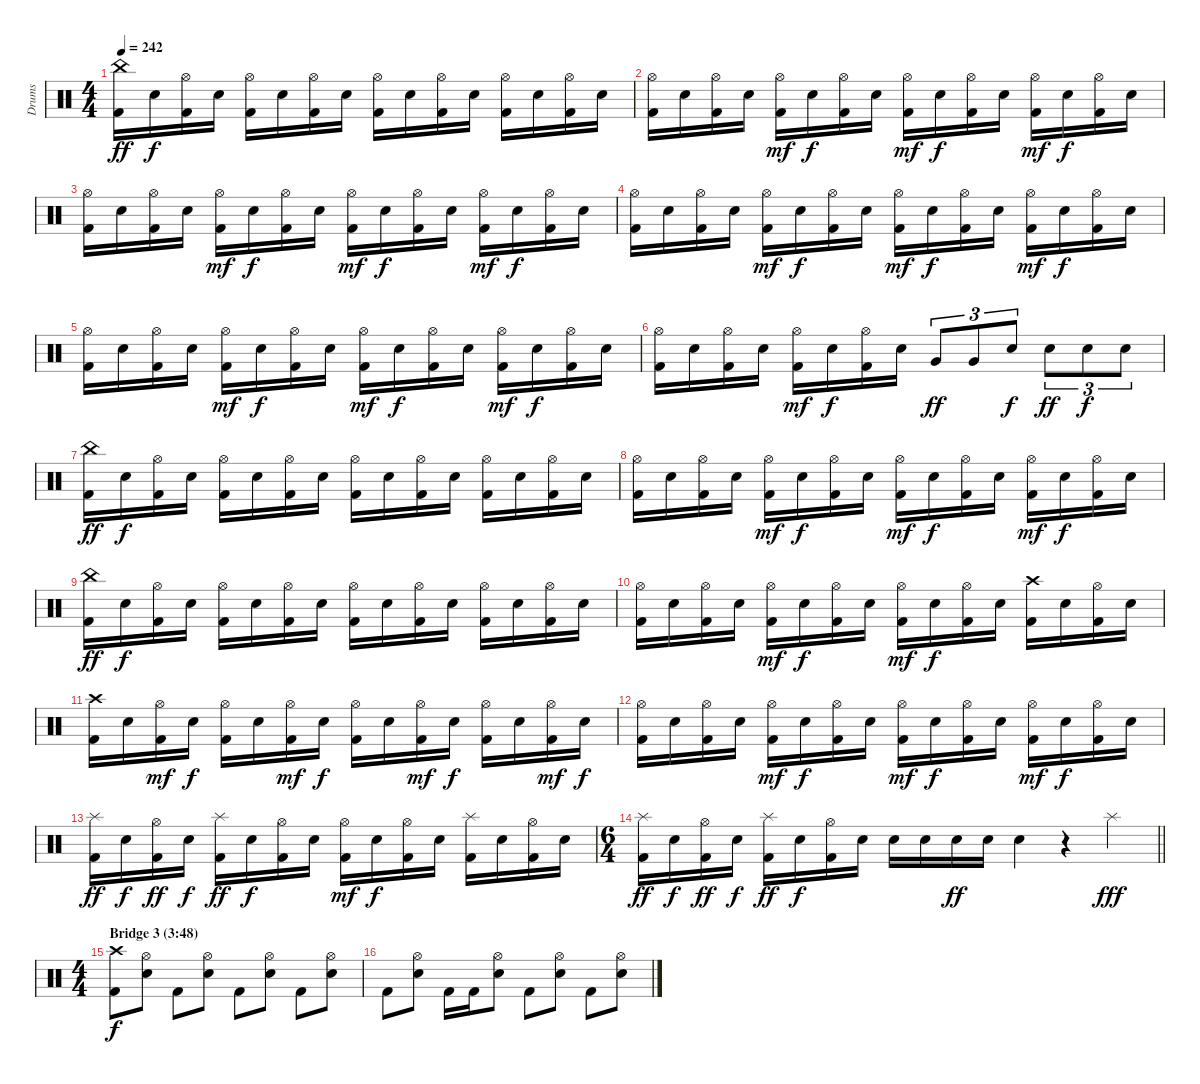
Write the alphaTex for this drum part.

\track ("Drums" "Drums") {instrument percussion}
\staff {score}
\articulation defaults
\ts (4 4)
\tempo 242
\clef neutral
\ks c
("China (hit)" "Kick (hit) 2").16{dy ff} "Electric Snare (hit)".16{dy f} ("Hi-Hat (open)" "Kick (hit) 2").16 "Electric Snare (hit)".16 ("Hi-Hat (open)" "Kick (hit) 2").16 "Electric Snare (hit)".16 ("Hi-Hat (open)" "Kick (hit) 2").16 "Electric Snare (hit)".16 ("Hi-Hat (open)" "Kick (hit) 2").16 "Electric Snare (hit)".16 ("Hi-Hat (open)" "Kick (hit) 2").16 "Electric Snare (hit)".16 ("Hi-Hat (open)" "Kick (hit) 2").16 "Electric Snare (hit)".16 ("Hi-Hat (open)" "Kick (hit) 2").16 "Electric Snare (hit)".16 |
("Hi-Hat (open)" "Kick (hit) 2").16 "Electric Snare (hit)".16 ("Hi-Hat (open)" "Kick (hit) 2").16 "Electric Snare (hit)".16 ("Hi-Hat (open)" "Kick (hit) 2").16{dy mf} "Electric Snare (hit)".16{dy f} ("Hi-Hat (open)" "Kick (hit) 2").16 "Electric Snare (hit)".16 ("Hi-Hat (open)" "Kick (hit) 2").16{dy mf} "Electric Snare (hit)".16{dy f} ("Hi-Hat (open)" "Kick (hit) 2").16 "Electric Snare (hit)".16 ("Hi-Hat (open)" "Kick (hit) 2").16{dy mf} "Electric Snare (hit)".16{dy f} ("Hi-Hat (open)" "Kick (hit) 2").16 "Electric Snare (hit)".16 |
("Hi-Hat (open)" "Kick (hit) 2").16 "Electric Snare (hit)".16 ("Hi-Hat (open)" "Kick (hit) 2").16 "Electric Snare (hit)".16 ("Hi-Hat (open)" "Kick (hit) 2").16{dy mf} "Electric Snare (hit)".16{dy f} ("Hi-Hat (open)" "Kick (hit) 2").16 "Electric Snare (hit)".16 ("Hi-Hat (open)" "Kick (hit) 2").16{dy mf} "Electric Snare (hit)".16{dy f} ("Hi-Hat (open)" "Kick (hit) 2").16 "Electric Snare (hit)".16 ("Hi-Hat (open)" "Kick (hit) 2").16{dy mf} "Electric Snare (hit)".16{dy f} ("Hi-Hat (open)" "Kick (hit) 2").16 "Electric Snare (hit)".16 |
("Hi-Hat (open)" "Kick (hit) 2").16 "Electric Snare (hit)".16 ("Hi-Hat (open)" "Kick (hit) 2").16 "Electric Snare (hit)".16 ("Hi-Hat (open)" "Kick (hit) 2").16{dy mf} "Electric Snare (hit)".16{dy f} ("Hi-Hat (open)" "Kick (hit) 2").16 "Electric Snare (hit)".16 ("Hi-Hat (open)" "Kick (hit) 2").16{dy mf} "Electric Snare (hit)".16{dy f} ("Hi-Hat (open)" "Kick (hit) 2").16 "Electric Snare (hit)".16 ("Hi-Hat (open)" "Kick (hit) 2").16{dy mf} "Electric Snare (hit)".16{dy f} ("Hi-Hat (open)" "Kick (hit) 2").16 "Electric Snare (hit)".16 |
("Hi-Hat (open)" "Kick (hit) 2").16 "Electric Snare (hit)".16 ("Hi-Hat (open)" "Kick (hit) 2").16 "Electric Snare (hit)".16 ("Hi-Hat (open)" "Kick (hit) 2").16{dy mf} "Electric Snare (hit)".16{dy f} ("Hi-Hat (open)" "Kick (hit) 2").16 "Electric Snare (hit)".16 ("Hi-Hat (open)" "Kick (hit) 2").16{dy mf} "Electric Snare (hit)".16{dy f} ("Hi-Hat (open)" "Kick (hit) 2").16 "Electric Snare (hit)".16 ("Hi-Hat (open)" "Kick (hit) 2").16{dy mf} "Electric Snare (hit)".16{dy f} ("Hi-Hat (open)" "Kick (hit) 2").16 "Electric Snare (hit)".16 |
("Hi-Hat (open)" "Kick (hit) 2").16 "Electric Snare (hit)".16 ("Hi-Hat (open)" "Kick (hit) 2").16 "Electric Snare (hit)".16 ("Hi-Hat (open)" "Kick (hit) 2").16{dy mf} "Electric Snare (hit)".16{dy f} ("Hi-Hat (open)" "Kick (hit) 2").16 "Electric Snare (hit)".16 "Very Low Tom (hit)".8{tu (3 2) dy ff} "Very Low Tom (hit)".8{tu (3 2)} "Electric Snare (hit)".8{tu (3 2) dy f} "Electric Snare (hit)".8{tu (3 2) dy ff} "Electric Snare (hit)".8{tu (3 2) dy f} "Electric Snare (hit)".8{tu (3 2)} |
("China (hit)" "Kick (hit) 2").16{dy ff} "Electric Snare (hit)".16{dy f} ("Hi-Hat (open)" "Kick (hit) 2").16 "Electric Snare (hit)".16 ("Hi-Hat (open)" "Kick (hit) 2").16 "Electric Snare (hit)".16 ("Hi-Hat (open)" "Kick (hit) 2").16 "Electric Snare (hit)".16 ("Hi-Hat (open)" "Kick (hit) 2").16 "Electric Snare (hit)".16 ("Hi-Hat (open)" "Kick (hit) 2").16 "Electric Snare (hit)".16 ("Hi-Hat (open)" "Kick (hit) 2").16 "Electric Snare (hit)".16 ("Hi-Hat (open)" "Kick (hit) 2").16 "Electric Snare (hit)".16 |
("Hi-Hat (open)" "Kick (hit) 2").16 "Electric Snare (hit)".16 ("Hi-Hat (open)" "Kick (hit) 2").16 "Electric Snare (hit)".16 ("Hi-Hat (open)" "Kick (hit) 2").16{dy mf} "Electric Snare (hit)".16{dy f} ("Hi-Hat (open)" "Kick (hit) 2").16 "Electric Snare (hit)".16 ("Hi-Hat (open)" "Kick (hit) 2").16{dy mf} "Electric Snare (hit)".16{dy f} ("Hi-Hat (open)" "Kick (hit) 2").16 "Electric Snare (hit)".16 ("Hi-Hat (open)" "Kick (hit) 2").16{dy mf} "Electric Snare (hit)".16{dy f} ("Hi-Hat (open)" "Kick (hit) 2").16 "Electric Snare (hit)".16 |
("China (hit)" "Kick (hit) 2").16{dy ff} "Electric Snare (hit)".16{dy f} ("Hi-Hat (open)" "Kick (hit) 2").16 "Electric Snare (hit)".16 ("Hi-Hat (open)" "Kick (hit) 2").16 "Electric Snare (hit)".16 ("Hi-Hat (open)" "Kick (hit) 2").16 "Electric Snare (hit)".16 ("Hi-Hat (open)" "Kick (hit) 2").16 "Electric Snare (hit)".16 ("Hi-Hat (open)" "Kick (hit) 2").16 "Electric Snare (hit)".16 ("Hi-Hat (open)" "Kick (hit) 2").16 "Electric Snare (hit)".16 ("Hi-Hat (open)" "Kick (hit) 2").16 "Electric Snare (hit)".16 |
("Hi-Hat (open)" "Kick (hit) 2").16 "Electric Snare (hit)".16 ("Hi-Hat (open)" "Kick (hit) 2").16 "Electric Snare (hit)".16 ("Hi-Hat (open)" "Kick (hit) 2").16{dy mf} "Electric Snare (hit)".16{dy f} ("Hi-Hat (open)" "Kick (hit) 2").16 "Electric Snare (hit)".16 ("Hi-Hat (open)" "Kick (hit) 2").16{dy mf} "Electric Snare (hit)".16{dy f} ("Hi-Hat (open)" "Kick (hit) 2").16 "Electric Snare (hit)".16 ("Crash high (hit)" "Kick (hit) 2").16 "Electric Snare (hit)".16 ("Hi-Hat (open)" "Kick (hit) 2").16 "Electric Snare (hit)".16 |
("Crash high (hit)" "Kick (hit) 2").16 "Electric Snare (hit)".16 ("Hi-Hat (open)" "Kick (hit) 2").16{dy mf} "Electric Snare (hit)".16{dy f} ("Hi-Hat (open)" "Kick (hit) 2").16 "Electric Snare (hit)".16 ("Hi-Hat (open)" "Kick (hit) 2").16{dy mf} "Electric Snare (hit)".16{dy f} ("Hi-Hat (open)" "Kick (hit) 2").16 "Electric Snare (hit)".16 ("Hi-Hat (open)" "Kick (hit) 2").16{dy mf} "Electric Snare (hit)".16{dy f} ("Hi-Hat (open)" "Kick (hit) 2").16 "Electric Snare (hit)".16 ("Hi-Hat (open)" "Kick (hit) 2").16{dy mf} "Electric Snare (hit)".16{dy f} |
("Hi-Hat (open)" "Kick (hit) 2").16 "Electric Snare (hit)".16 ("Hi-Hat (open)" "Kick (hit) 2").16 "Electric Snare (hit)".16 ("Hi-Hat (open)" "Kick (hit) 2").16{dy mf} "Electric Snare (hit)".16{dy f} ("Hi-Hat (open)" "Kick (hit) 2").16 "Electric Snare (hit)".16 ("Hi-Hat (open)" "Kick (hit) 2").16{dy mf} "Electric Snare (hit)".16{dy f} ("Hi-Hat (open)" "Kick (hit) 2").16 "Electric Snare (hit)".16 ("Hi-Hat (open)" "Kick (hit) 2").16{dy mf} "Electric Snare (hit)".16{dy f} ("Hi-Hat (open)" "Kick (hit) 2").16 "Electric Snare (hit)".16 |
("Splash (hit)" "Kick (hit) 2").16{dy ff} "Electric Snare (hit)".16{dy f} ("Hi-Hat (open)" "Kick (hit) 2").16{dy ff} "Electric Snare (hit)".16{dy f} ("Splash (hit)" "Kick (hit) 2").16{dy ff} "Electric Snare (hit)".16{dy f} ("Hi-Hat (open)" "Kick (hit) 2").16 "Electric Snare (hit)".16 ("Hi-Hat (open)" "Kick (hit) 2").16{dy mf} "Electric Snare (hit)".16{dy f} ("Hi-Hat (open)" "Kick (hit) 2").16 "Electric Snare (hit)".16 ("Splash (hit)" "Kick (hit) 2").16 "Electric Snare (hit)".16 ("Hi-Hat (open)" "Kick (hit) 2").16 "Electric Snare (hit)".16 |
\ts (6 4)
\barLineRight lightlight
("Splash (hit)" "Kick (hit) 2").16{dy ff} "Electric Snare (hit)".16{dy f} ("Hi-Hat (open)" "Kick (hit) 2").16{dy ff} "Electric Snare (hit)".16{dy f} ("Splash (hit)" "Kick (hit) 2").16{dy ff} "Electric Snare (hit)".16{dy f} ("Hi-Hat (open)" "Kick (hit) 2").16 "Electric Snare (hit)".16 "Electric Snare (hit)".16 "Electric Snare (hit)".16 "Electric Snare (hit)".16{dy ff} "Electric Snare (hit)".16 "Electric Snare (hit)".4 r.4 "Splash (hit)".4{dy fff volume 16} |
\ts (4 4)
\section ("" "Bridge 3 (3:48)")
("Crash high (hit)" "Kick (hit) 2").8{dy f} ("Hi-Hat (open)" "Electric Snare (hit)").8 "Kick (hit) 2".8 ("Hi-Hat (open)" "Electric Snare (hit)").8 "Kick (hit) 2".8 ("Hi-Hat (open)" "Electric Snare (hit)").8 "Kick (hit) 2".8 ("Hi-Hat (open)" "Electric Snare (hit)").8 |
"Kick (hit) 2".8 ("Hi-Hat (open)" "Electric Snare (hit)").8 "Kick (hit) 2".16 "Kick (hit) 2".16 ("Hi-Hat (open)" "Electric Snare (hit)").8 "Kick (hit) 2".8 ("Hi-Hat (open)" "Electric Snare (hit)").8 "Kick (hit) 2".8 ("Hi-Hat (open)" "Electric Snare (hit)").8
